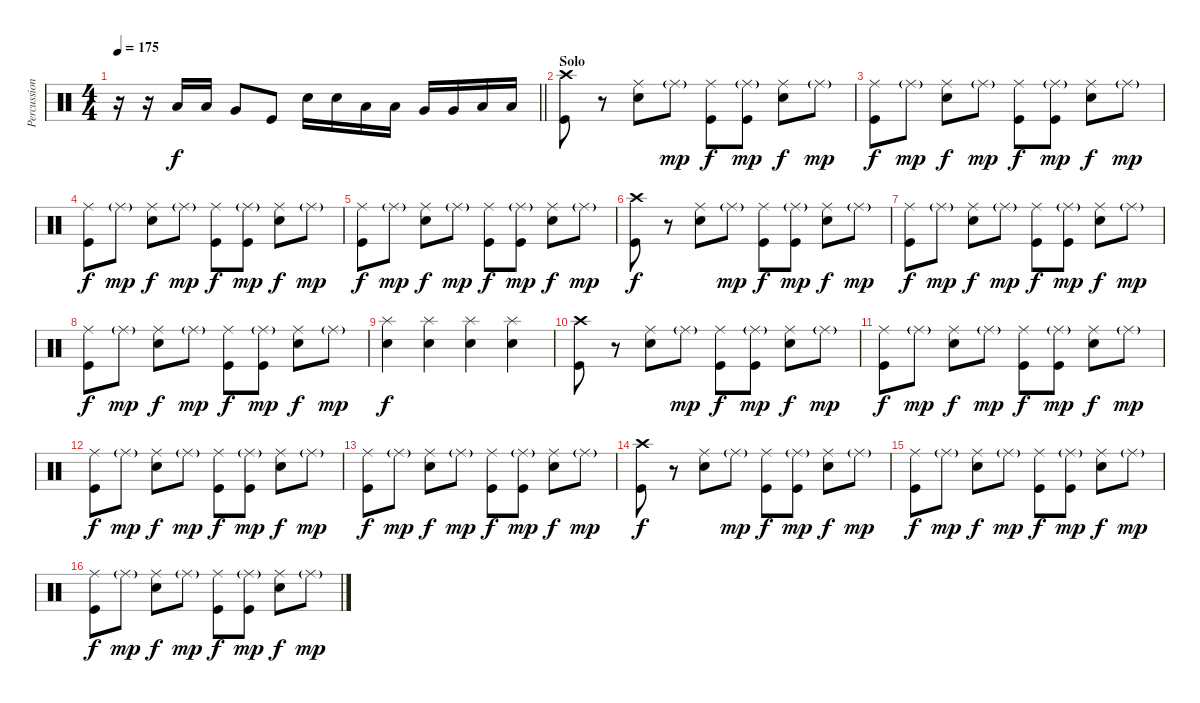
\track ("Percussion" "Percussion") {instrument percussion}
\staff {score}
\articulation defaults
\ts (4 4)
\tempo 175
\clef neutral
\barLineRight lightlight
\ks c
r.16{dy f} r.16 "Low Tom (hit)".16 "Low Tom (hit)".16 "Very Low Tom (hit)".8 "Kick (hit)".8 "Snare (hit) 2".16 "Snare (hit) 2".16 "Low Tom (hit)".16 "Low Tom (hit)".16 "Very Low Tom (hit)".16 "Very Low Tom (hit)".16 "Low Floor Tom (hit)".16 "Low Floor Tom (hit)".16 |
\section ("" "Solo")
("Crash high (hit)" "Kick (hit)").8 r.8 ("Ride (middle)" "Snare (hit) 2").8 "Ride (middle)"{g}.8{dy mp} ("Ride (middle)" "Kick (hit)").8{dy f} ("Ride (middle)"{g} "Kick (hit)").8{dy mp} ("Ride (middle)" "Snare (hit) 2").8{dy f} "Ride (middle)"{g}.8{dy mp} |
("Ride (middle)" "Kick (hit)").8{dy f} "Ride (middle)"{g}.8{dy mp} ("Ride (middle)" "Snare (hit) 2").8{dy f} "Ride (middle)"{g}.8{dy mp} ("Ride (middle)" "Kick (hit)").8{dy f} ("Ride (middle)"{g} "Kick (hit)").8{dy mp} ("Ride (middle)" "Snare (hit) 2").8{dy f} "Ride (middle)"{g}.8{dy mp} |
("Ride (middle)" "Kick (hit)").8{dy f} "Ride (middle)"{g}.8{dy mp} ("Ride (middle)" "Snare (hit) 2").8{dy f} "Ride (middle)"{g}.8{dy mp} ("Ride (middle)" "Kick (hit)").8{dy f} ("Ride (middle)"{g} "Kick (hit)").8{dy mp} ("Ride (middle)" "Snare (hit) 2").8{dy f} "Ride (middle)"{g}.8{dy mp} |
("Ride (middle)" "Kick (hit)").8{dy f} "Ride (middle)"{g}.8{dy mp} ("Ride (middle)" "Snare (hit) 2").8{dy f} "Ride (middle)"{g}.8{dy mp} ("Ride (middle)" "Kick (hit)").8{dy f} ("Ride (middle)"{g} "Kick (hit)").8{dy mp} ("Ride (middle)" "Snare (hit) 2").8{dy f} "Ride (middle)"{g}.8{dy mp} |
("Crash high (hit)" "Kick (hit)").8{dy f} r.8 ("Ride (middle)" "Snare (hit) 2").8 "Ride (middle)"{g}.8{dy mp} ("Ride (middle)" "Kick (hit)").8{dy f} ("Ride (middle)"{g} "Kick (hit)").8{dy mp} ("Ride (middle)" "Snare (hit) 2").8{dy f} "Ride (middle)"{g}.8{dy mp} |
("Ride (middle)" "Kick (hit)").8{dy f} "Ride (middle)"{g}.8{dy mp} ("Ride (middle)" "Snare (hit) 2").8{dy f} "Ride (middle)"{g}.8{dy mp} ("Ride (middle)" "Kick (hit)").8{dy f} ("Ride (middle)"{g} "Kick (hit)").8{dy mp} ("Ride (middle)" "Snare (hit) 2").8{dy f} "Ride (middle)"{g}.8{dy mp} |
("Ride (middle)" "Kick (hit)").8{dy f} "Ride (middle)"{g}.8{dy mp} ("Ride (middle)" "Snare (hit) 2").8{dy f} "Ride (middle)"{g}.8{dy mp} ("Ride (middle)" "Kick (hit)").8{dy f} ("Ride (middle)"{g} "Kick (hit)").8{dy mp} ("Ride (middle)" "Snare (hit) 2").8{dy f} "Ride (middle)"{g}.8{dy mp} |
("Splash (hit)" "Snare (hit) 2").4{dy f} ("Splash (hit)" "Snare (hit) 2").4 ("Splash (hit)" "Snare (hit) 2").4 ("Splash (hit)" "Snare (hit) 2").4 |
("Crash high (hit)" "Kick (hit)").8 r.8 ("Ride (middle)" "Snare (hit) 2").8 "Ride (middle)"{g}.8{dy mp} ("Ride (middle)" "Kick (hit)").8{dy f} ("Ride (middle)"{g} "Kick (hit)").8{dy mp} ("Ride (middle)" "Snare (hit) 2").8{dy f} "Ride (middle)"{g}.8{dy mp} |
("Ride (middle)" "Kick (hit)").8{dy f} "Ride (middle)"{g}.8{dy mp} ("Ride (middle)" "Snare (hit) 2").8{dy f} "Ride (middle)"{g}.8{dy mp} ("Ride (middle)" "Kick (hit)").8{dy f} ("Ride (middle)"{g} "Kick (hit)").8{dy mp} ("Ride (middle)" "Snare (hit) 2").8{dy f} "Ride (middle)"{g}.8{dy mp} |
("Ride (middle)" "Kick (hit)").8{dy f} "Ride (middle)"{g}.8{dy mp} ("Ride (middle)" "Snare (hit) 2").8{dy f} "Ride (middle)"{g}.8{dy mp} ("Ride (middle)" "Kick (hit)").8{dy f} ("Ride (middle)"{g} "Kick (hit)").8{dy mp} ("Ride (middle)" "Snare (hit) 2").8{dy f} "Ride (middle)"{g}.8{dy mp} |
("Ride (middle)" "Kick (hit)").8{dy f} "Ride (middle)"{g}.8{dy mp} ("Ride (middle)" "Snare (hit) 2").8{dy f} "Ride (middle)"{g}.8{dy mp} ("Ride (middle)" "Kick (hit)").8{dy f} ("Ride (middle)"{g} "Kick (hit)").8{dy mp} ("Ride (middle)" "Snare (hit) 2").8{dy f} "Ride (middle)"{g}.8{dy mp} |
("Crash high (hit)" "Kick (hit)").8{dy f} r.8 ("Ride (middle)" "Snare (hit) 2").8 "Ride (middle)"{g}.8{dy mp} ("Ride (middle)" "Kick (hit)").8{dy f} ("Ride (middle)"{g} "Kick (hit)").8{dy mp} ("Ride (middle)" "Snare (hit) 2").8{dy f} "Ride (middle)"{g}.8{dy mp} |
("Ride (middle)" "Kick (hit)").8{dy f} "Ride (middle)"{g}.8{dy mp} ("Ride (middle)" "Snare (hit) 2").8{dy f} "Ride (middle)"{g}.8{dy mp} ("Ride (middle)" "Kick (hit)").8{dy f} ("Ride (middle)"{g} "Kick (hit)").8{dy mp} ("Ride (middle)" "Snare (hit) 2").8{dy f} "Ride (middle)"{g}.8{dy mp} |
("Ride (middle)" "Kick (hit)").8{dy f} "Ride (middle)"{g}.8{dy mp} ("Ride (middle)" "Snare (hit) 2").8{dy f} "Ride (middle)"{g}.8{dy mp} ("Ride (middle)" "Kick (hit)").8{dy f} ("Ride (middle)"{g} "Kick (hit)").8{dy mp} ("Ride (middle)" "Snare (hit) 2").8{dy f} "Ride (middle)"{g}.8{dy mp}
